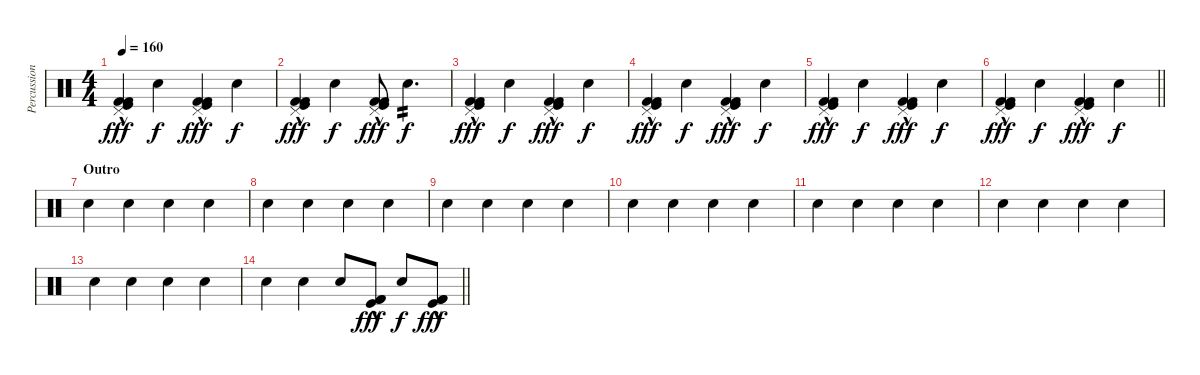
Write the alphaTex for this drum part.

\track ("Percussion" "Percussion") {instrument percussion}
\staff {score}
\articulation defaults
\ts (4 4)
\tempo 160
\clef neutral
\ks c
("Pedal Hi-Hat (hit)" "Kick (hit) 2"{hac} "Kick (hit)"{hac} "Kick (hit) 2").4{dy fff} "Snare (hit) 2".4{dy f} ("Pedal Hi-Hat (hit)" "Kick (hit) 2"{hac} "Kick (hit)"{hac} "Kick (hit) 2").4{dy fff} "Snare (hit) 2".4{dy f} |
("Pedal Hi-Hat (hit)" "Kick (hit) 2"{hac} "Kick (hit)"{hac} "Kick (hit) 2").4{dy fff} "Snare (hit) 2".4{dy f} ("Pedal Hi-Hat (hit)" "Kick (hit) 2"{hac} "Kick (hit)"{hac} "Kick (hit) 2").8{dy fff} "Snare (hit) 2".4{d tp 2 dy f} |
("Pedal Hi-Hat (hit)" "Kick (hit) 2"{hac} "Kick (hit)"{hac} "Kick (hit) 2").4{dy fff} "Snare (hit) 2".4{dy f} ("Pedal Hi-Hat (hit)" "Kick (hit) 2"{hac} "Kick (hit)"{hac} "Kick (hit) 2").4{dy fff} "Snare (hit) 2".4{dy f} |
("Pedal Hi-Hat (hit)" "Kick (hit) 2"{hac} "Kick (hit)"{hac} "Kick (hit) 2").4{dy fff} "Snare (hit) 2".4{dy f} ("Pedal Hi-Hat (hit)" "Kick (hit) 2"{hac} "Kick (hit)"{hac} "Kick (hit) 2").4{dy fff} "Snare (hit) 2".4{dy f} |
("Pedal Hi-Hat (hit)" "Kick (hit) 2"{hac} "Kick (hit)"{hac} "Kick (hit) 2").4{dy fff} "Snare (hit) 2".4{dy f} ("Pedal Hi-Hat (hit)" "Kick (hit) 2"{hac} "Kick (hit)"{hac} "Kick (hit) 2").4{dy fff} "Snare (hit) 2".4{dy f} |
\barLineRight lightlight
("Pedal Hi-Hat (hit)" "Kick (hit) 2"{hac} "Kick (hit)"{hac} "Kick (hit) 2").4{dy fff} "Snare (hit) 2".4{dy f} ("Pedal Hi-Hat (hit)" "Kick (hit) 2"{hac} "Kick (hit)"{hac} "Kick (hit) 2").4{dy fff} "Snare (hit) 2".4{dy f} |
\section ("" "Outro")
"Snare (hit) 2".4 "Snare (hit) 2".4 "Snare (hit) 2".4 "Snare (hit) 2".4 |
"Snare (hit) 2".4 "Snare (hit) 2".4 "Snare (hit) 2".4 "Snare (hit) 2".4 |
"Snare (hit) 2".4 "Snare (hit) 2".4 "Snare (hit) 2".4 "Snare (hit) 2".4 |
"Snare (hit) 2".4 "Snare (hit) 2".4 "Snare (hit) 2".4 "Snare (hit) 2".4 |
"Snare (hit) 2".4 "Snare (hit) 2".4 "Snare (hit) 2".4 "Snare (hit) 2".4 |
"Snare (hit) 2".4 "Snare (hit) 2".4 "Snare (hit) 2".4 "Snare (hit) 2".4 |
"Snare (hit) 2".4 "Snare (hit) 2".4 "Snare (hit) 2".4 "Snare (hit) 2".4 |
\barLineRight lightlight "Snare (hit) 2".4 "Snare (hit) 2".4 "Snare (hit) 2".8
("Kick (hit) 2"{hac} "Kick (hit)"{hac} "Kick (hit) 2"{hac}).8{dy fff} "Snare (hit) 2".8{dy f} ("Kick (hit) 2"{hac} "Kick (hit)"{hac} "Kick (hit) 2"{hac}).8{dy fff}
